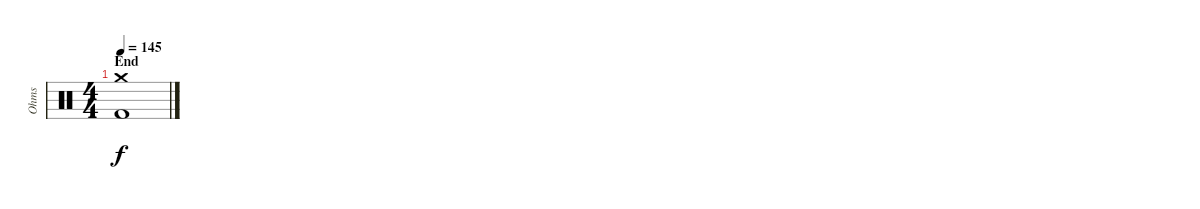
\track ("Ohms" "Ohms") {instrument percussion}
\staff {score}
\articulation defaults
\ts (4 4)
\section ("" "End")
\tempo 145
\clef neutral
\ks c
("Crash medium (hit)" "Kick (hit) 2").1{dy f}
